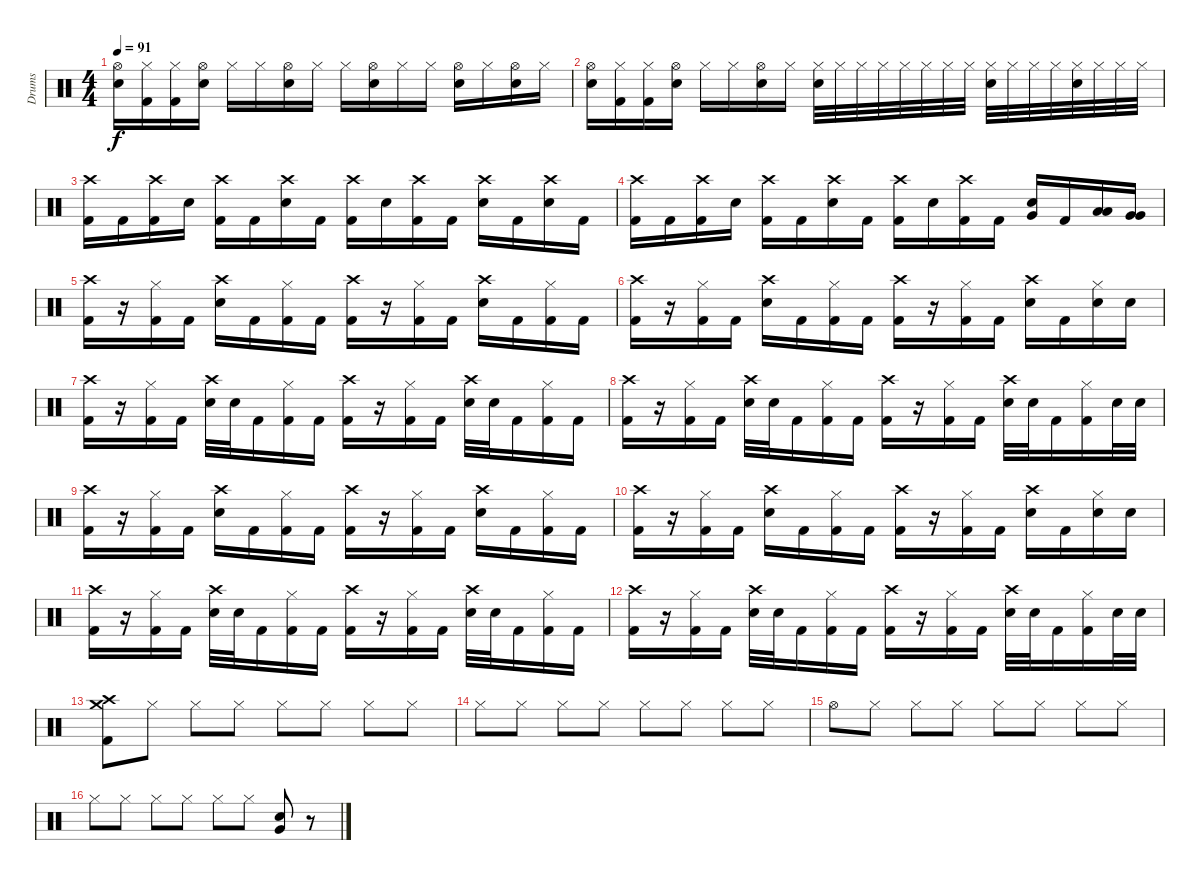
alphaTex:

\track ("Drums" "Drums") {instrument percussion}
\staff {score}
\articulation defaults
\ts (4 4)
\tempo 91
\clef neutral
\ks c
("Hi-Hat (open)" "Electric Snare (hit)").16{dy f} ("Hi-Hat (closed)" "Kick (hit) 2").16 ("Hi-Hat (closed)" "Kick (hit) 2").16 ("Hi-Hat (open)" "Electric Snare (hit)").16 "Hi-Hat (closed)".16 "Hi-Hat (closed)".16 ("Hi-Hat (open)" "Electric Snare (hit)").16 "Hi-Hat (closed)".16 "Hi-Hat (closed)".16 ("Hi-Hat (open)" "Electric Snare (hit)").16 "Hi-Hat (closed)".16 "Hi-Hat (closed)".16 ("Hi-Hat (open)" "Electric Snare (hit)").16 "Hi-Hat (closed)".16 ("Hi-Hat (open)" "Electric Snare (hit)").16 "Hi-Hat (closed)".16 |
("Hi-Hat (open)" "Electric Snare (hit)").16 ("Hi-Hat (closed)" "Kick (hit) 2").16 ("Hi-Hat (closed)" "Kick (hit) 2").16 ("Hi-Hat (open)" "Electric Snare (hit)").16 "Hi-Hat (closed)".16 "Hi-Hat (closed)".16 ("Hi-Hat (open)" "Electric Snare (hit)").16 "Hi-Hat (closed)".16 ("Hi-Hat (closed)" "Electric Snare (hit)").32 "Hi-Hat (closed)".32 "Hi-Hat (closed)".32 "Hi-Hat (closed)".32 "Hi-Hat (closed)".32 "Hi-Hat (closed)".32 "Hi-Hat (closed)".32 "Hi-Hat (closed)".32 ("Hi-Hat (closed)" "Electric Snare (hit)").32 "Hi-Hat (closed)".32 "Hi-Hat (closed)".32 "Hi-Hat (closed)".32 ("Hi-Hat (closed)" "Electric Snare (hit)").32 "Hi-Hat (closed)".32 "Hi-Hat (closed)".32 "Hi-Hat (closed)".32 |
("Crash high (hit)" "Kick (hit) 2").16 "Kick (hit) 2".16 ("Crash high (hit)" "Kick (hit) 2").16 "Electric Snare (hit)".16 ("Crash high (hit)" "Kick (hit) 2").16 "Kick (hit) 2".16 ("Crash high (hit)" "Electric Snare (hit)").16 "Kick (hit) 2".16 ("Crash high (hit)" "Kick (hit) 2").16 "Electric Snare (hit)".16 ("Crash high (hit)" "Kick (hit) 2").16 "Kick (hit) 2".16 ("Crash high (hit)" "Electric Snare (hit)").16 "Kick (hit) 2".16 ("Crash high (hit)" "Electric Snare (hit)").16 "Kick (hit) 2".16 |
("Crash high (hit)" "Kick (hit) 2").16 "Kick (hit) 2".16 ("Crash high (hit)" "Kick (hit) 2").16 "Electric Snare (hit)".16 ("Crash high (hit)" "Kick (hit) 2").16 "Kick (hit) 2".16 ("Crash high (hit)" "Electric Snare (hit)").16 "Kick (hit) 2".16 ("Crash high (hit)" "Kick (hit) 2").16 "Electric Snare (hit)".16 ("Crash high (hit)" "Kick (hit) 2").16 "Kick (hit) 2".16 ("Very Low Tom (hit)" "Electric Snare (hit)").16 "Kick (hit) 2".16 ("Low Tom (hit)" "Low Tom (hit)").16 ("Very Low Tom (hit)" "Very Low Tom (hit)").16 |
("Crash high (hit)" "Kick (hit) 2").16 r.16 ("Hi-Hat (closed)" "Kick (hit) 2").16 "Kick (hit) 2".16 ("Crash high (hit)" "Electric Snare (hit)").16 "Kick (hit) 2".16 ("Hi-Hat (closed)" "Kick (hit) 2").16 "Kick (hit) 2".16 ("Crash high (hit)" "Kick (hit) 2").16 r.16 ("Hi-Hat (closed)" "Kick (hit) 2").16 "Kick (hit) 2".16 ("Crash high (hit)" "Electric Snare (hit)").16 "Kick (hit) 2".16 ("Hi-Hat (closed)" "Kick (hit) 2").16 "Kick (hit) 2".16 |
("Crash high (hit)" "Kick (hit) 2").16 r.16 ("Hi-Hat (closed)" "Kick (hit) 2").16 "Kick (hit) 2".16 ("Crash high (hit)" "Electric Snare (hit)").16 "Kick (hit) 2".16 ("Hi-Hat (closed)" "Kick (hit) 2").16 "Kick (hit) 2".16 ("Crash high (hit)" "Kick (hit) 2").16 r.16 ("Hi-Hat (closed)" "Kick (hit) 2").16 "Kick (hit) 2".16 ("Crash high (hit)" "Electric Snare (hit)").16 "Kick (hit) 2".16 ("Hi-Hat (closed)" "Electric Snare (hit)").16 "Electric Snare (hit)".16 |
("Crash high (hit)" "Kick (hit) 2").16 r.16 ("Hi-Hat (closed)" "Kick (hit) 2").16 "Kick (hit) 2".16 ("Crash high (hit)" "Electric Snare (hit)").32 "Electric Snare (hit)".32 "Kick (hit) 2".16 ("Hi-Hat (closed)" "Kick (hit) 2").16 "Kick (hit) 2".16 ("Crash high (hit)" "Kick (hit) 2").16 r.16 ("Hi-Hat (closed)" "Kick (hit) 2").16 "Kick (hit) 2".16 ("Crash high (hit)" "Electric Snare (hit)").32 "Electric Snare (hit)".32 "Kick (hit) 2".16 ("Hi-Hat (closed)" "Kick (hit) 2").16 "Kick (hit) 2".16 |
("Crash high (hit)" "Kick (hit) 2").16 r.16 ("Hi-Hat (closed)" "Kick (hit) 2").16 "Kick (hit) 2".16 ("Crash high (hit)" "Electric Snare (hit)").32 "Electric Snare (hit)".32 "Kick (hit) 2".16 ("Hi-Hat (closed)" "Kick (hit) 2").16 "Kick (hit) 2".16 ("Crash high (hit)" "Kick (hit) 2").16 r.16 ("Hi-Hat (closed)" "Kick (hit) 2").16 "Kick (hit) 2".16 ("Crash high (hit)" "Electric Snare (hit)").32 "Electric Snare (hit)".32 "Kick (hit) 2".16 ("Hi-Hat (closed)" "Kick (hit) 2").16 "Electric Snare (hit)".32 "Electric Snare (hit)".32 |
("Crash high (hit)" "Kick (hit) 2").16 r.16 ("Hi-Hat (closed)" "Kick (hit) 2").16 "Kick (hit) 2".16 ("Crash high (hit)" "Electric Snare (hit)").16 "Kick (hit) 2".16 ("Hi-Hat (closed)" "Kick (hit) 2").16 "Kick (hit) 2".16 ("Crash high (hit)" "Kick (hit) 2").16 r.16 ("Hi-Hat (closed)" "Kick (hit) 2").16 "Kick (hit) 2".16 ("Crash high (hit)" "Electric Snare (hit)").16 "Kick (hit) 2".16 ("Hi-Hat (closed)" "Kick (hit) 2").16 "Kick (hit) 2".16 |
("Crash high (hit)" "Kick (hit) 2").16 r.16 ("Hi-Hat (closed)" "Kick (hit) 2").16 "Kick (hit) 2".16 ("Crash high (hit)" "Electric Snare (hit)").16 "Kick (hit) 2".16 ("Hi-Hat (closed)" "Kick (hit) 2").16 "Kick (hit) 2".16 ("Crash high (hit)" "Kick (hit) 2").16 r.16 ("Hi-Hat (closed)" "Kick (hit) 2").16 "Kick (hit) 2".16 ("Crash high (hit)" "Electric Snare (hit)").16 "Kick (hit) 2".16 ("Hi-Hat (closed)" "Electric Snare (hit)").16 "Electric Snare (hit)".16 |
("Crash high (hit)" "Kick (hit) 2").16 r.16 ("Hi-Hat (closed)" "Kick (hit) 2").16 "Kick (hit) 2".16 ("Crash high (hit)" "Electric Snare (hit)").32 "Electric Snare (hit)".32 "Kick (hit) 2".16 ("Hi-Hat (closed)" "Kick (hit) 2").16 "Kick (hit) 2".16 ("Crash high (hit)" "Kick (hit) 2").16 r.16 ("Hi-Hat (closed)" "Kick (hit) 2").16 "Kick (hit) 2".16 ("Crash high (hit)" "Electric Snare (hit)").32 "Electric Snare (hit)".32 "Kick (hit) 2".16 ("Hi-Hat (closed)" "Kick (hit) 2").16 "Kick (hit) 2".16 |
("Crash high (hit)" "Kick (hit) 2").16 r.16 ("Hi-Hat (closed)" "Kick (hit) 2").16 "Kick (hit) 2".16 ("Crash high (hit)" "Electric Snare (hit)").32 "Electric Snare (hit)".32 "Kick (hit) 2".16 ("Hi-Hat (closed)" "Kick (hit) 2").16 "Kick (hit) 2".16 ("Crash high (hit)" "Kick (hit) 2").16 r.16 ("Hi-Hat (closed)" "Kick (hit) 2").16 "Kick (hit) 2".16 ("Crash high (hit)" "Electric Snare (hit)").32 "Electric Snare (hit)".32 "Kick (hit) 2".16 ("Hi-Hat (closed)" "Kick (hit) 2").16 "Electric Snare (hit)".32 "Electric Snare (hit)".32 |
("Crash medium (hit)" "Crash high (hit)" "Kick (hit) 2").8 "Hi-Hat (closed)".8 "Hi-Hat (closed)".8 "Hi-Hat (closed)".8 "Hi-Hat (closed)".8 "Hi-Hat (closed)".8 "Hi-Hat (closed)".8 "Hi-Hat (closed)".8 |
"Hi-Hat (closed)".8 "Hi-Hat (closed)".8 "Hi-Hat (closed)".8 "Hi-Hat (closed)".8 "Hi-Hat (closed)".8 "Hi-Hat (closed)".8 "Hi-Hat (closed)".8 "Hi-Hat (closed)".8 |
"Hi-Hat (open)".8 "Hi-Hat (closed)".8 "Hi-Hat (closed)".8 "Hi-Hat (closed)".8 "Hi-Hat (closed)".8 "Hi-Hat (closed)".8 "Hi-Hat (closed)".8 "Hi-Hat (closed)".8 |
"Hi-Hat (closed)".8 "Hi-Hat (closed)".8 "Hi-Hat (closed)".8 "Hi-Hat (closed)".8 "Hi-Hat (closed)".8 "Hi-Hat (closed)".8 ("Very Low Tom (hit)" "Electric Snare (hit)").8 r.8
